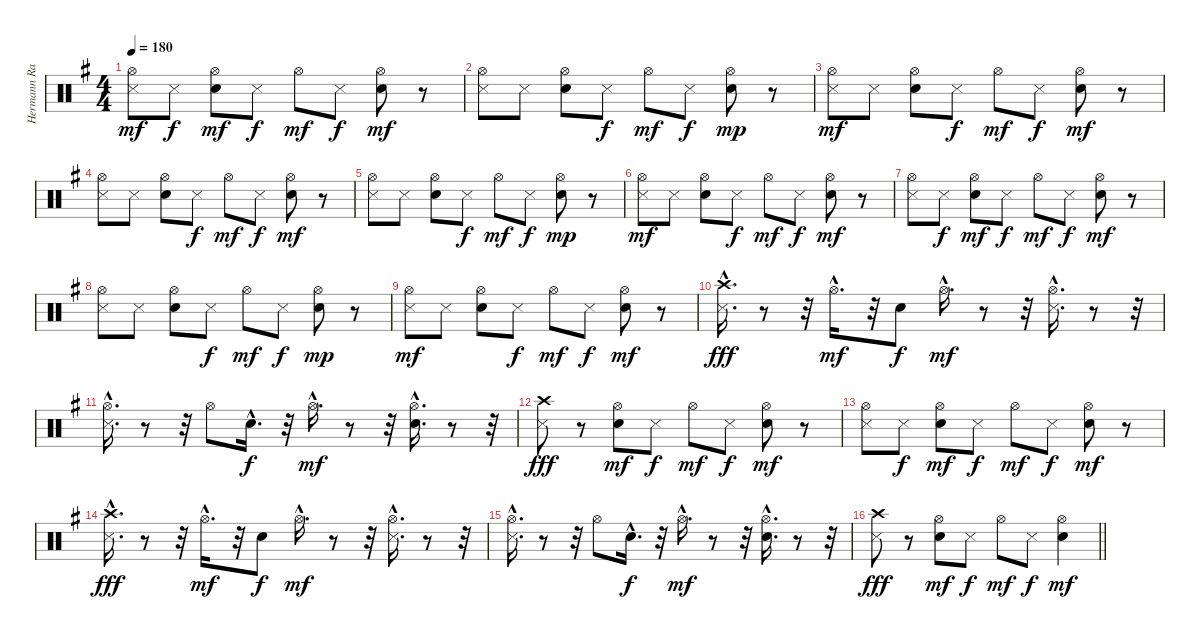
\track ("Hermann Rarebel" "Hermann Ra") {instrument percussion}
\staff {score}
\articulation defaults
\ts (4 4)
\tempo 180
\clef neutral
\ks eminor
("Hi-Hat (open)" "Metronome (hit)").8{dy mf} "Metronome (hit)".8{dy f} ("Hi-Hat (open)" "Snare (hit) 2").8{dy mf} "Metronome (hit)".8{dy f} "Hi-Hat (open)".8{dy mf} "Metronome (hit)".8{dy f} ("Hi-Hat (open)" "Snare (hit) 2").8{dy mf} r.8 |
("Hi-Hat (open)" "Metronome (hit)").8 "Metronome (hit)".8 ("Hi-Hat (open)" "Snare (hit) 2").8 "Metronome (hit)".8{dy f} "Hi-Hat (open)".8{dy mf} "Metronome (hit)".8{dy f} ("Hi-Hat (open)" "Snare (hit) 2").8{dy mp} r.8 |
("Hi-Hat (open)" "Metronome (hit)").8{dy mf} "Metronome (hit)".8 ("Hi-Hat (open)" "Snare (hit) 2").8 "Metronome (hit)".8{dy f} "Hi-Hat (open)".8{dy mf} "Metronome (hit)".8{dy f} ("Hi-Hat (open)" "Snare (hit) 2").8{dy mf} r.8 |
("Hi-Hat (open)" "Metronome (hit)").8 "Metronome (hit)".8 ("Hi-Hat (open)" "Snare (hit) 2").8 "Metronome (hit)".8{dy f} "Hi-Hat (open)".8{dy mf} "Metronome (hit)".8{dy f} ("Hi-Hat (open)" "Snare (hit) 2").8{dy mf} r.8 |
("Hi-Hat (open)" "Metronome (hit)").8 "Metronome (hit)".8 ("Hi-Hat (open)" "Snare (hit) 2").8 "Metronome (hit)".8{dy f} "Hi-Hat (open)".8{dy mf} "Metronome (hit)".8{dy f} ("Hi-Hat (open)" "Snare (hit) 2").8{dy mp} r.8 |
("Hi-Hat (open)" "Metronome (hit)").8{dy mf} "Metronome (hit)".8 ("Hi-Hat (open)" "Snare (hit) 2").8 "Metronome (hit)".8{dy f} "Hi-Hat (open)".8{dy mf} "Metronome (hit)".8{dy f} ("Hi-Hat (open)" "Snare (hit) 2").8{dy mf} r.8 |
("Hi-Hat (open)" "Metronome (hit)").8 "Metronome (hit)".8{dy f} ("Hi-Hat (open)" "Snare (hit) 2").8{dy mf} "Metronome (hit)".8{dy f} "Hi-Hat (open)".8{dy mf} "Metronome (hit)".8{dy f} ("Hi-Hat (open)" "Snare (hit) 2").8{dy mf} r.8 |
("Hi-Hat (open)" "Metronome (hit)").8 "Metronome (hit)".8 ("Hi-Hat (open)" "Snare (hit) 2").8 "Metronome (hit)".8{dy f} "Hi-Hat (open)".8{dy mf} "Metronome (hit)".8{dy f} ("Hi-Hat (open)" "Snare (hit) 2").8{dy mp} r.8 |
("Hi-Hat (open)" "Metronome (hit)").8{dy mf} "Metronome (hit)".8 ("Hi-Hat (open)" "Snare (hit) 2").8 "Metronome (hit)".8{dy f} "Hi-Hat (open)".8{dy mf} "Metronome (hit)".8{dy f} ("Hi-Hat (open)" "Snare (hit) 2").8{dy mf} r.8 |
("Metronome (hit)"{hac} "Crash high (hit)"{hac}).16{d dy fff} r.8 r.32 "Hi-Hat (open)"{hac}.16{d dy mf} r.32 "Snare (hit) 2".8{dy f} "Hi-Hat (open)"{hac}.16{d dy mf} r.8 r.32 ("Hi-Hat (open)"{hac} "Metronome (hit)"{hac}).16{d} r.8 r.32 |
("Hi-Hat (open)"{hac} "Metronome (hit)"{hac}).16{d} r.8 r.32 "Hi-Hat (open)".8 "Snare (hit) 2"{hac}.16{d dy f} r.32 "Hi-Hat (open)"{hac}.16{d dy mf} r.8 r.32 ("Snare (hit) 2"{hac} "Hi-Hat (open)"{hac}).16{d} r.8 r.32 |
("Crash high (hit)" "Metronome (hit)").8{dy fff} r.8 ("Hi-Hat (open)" "Snare (hit) 2").8{dy mf} "Metronome (hit)".8{dy f} "Hi-Hat (open)".8{dy mf} "Metronome (hit)".8{dy f} ("Hi-Hat (open)" "Snare (hit) 2").8{dy mf} r.8 |
("Hi-Hat (open)" "Metronome (hit)").8 "Metronome (hit)".8{dy f} ("Hi-Hat (open)" "Snare (hit) 2").8{dy mf} "Metronome (hit)".8{dy f} "Hi-Hat (open)".8{dy mf} "Metronome (hit)".8{dy f} ("Hi-Hat (open)" "Snare (hit) 2").8{dy mf} r.8 |
("Metronome (hit)"{hac} "Crash high (hit)"{hac}).16{d dy fff} r.8 r.32 "Hi-Hat (open)"{hac}.16{d dy mf} r.32 "Snare (hit) 2".8{dy f} "Hi-Hat (open)"{hac}.16{d dy mf} r.8 r.32 ("Hi-Hat (open)"{hac} "Metronome (hit)"{hac}).16{d} r.8 r.32 |
("Hi-Hat (open)"{hac} "Metronome (hit)"{hac}).16{d} r.8 r.32 "Hi-Hat (open)".8 "Snare (hit) 2"{hac}.16{d dy f} r.32 "Hi-Hat (open)"{hac}.16{d dy mf} r.8 r.32 ("Snare (hit) 2"{hac} "Hi-Hat (open)"{hac}).16{d} r.8 r.32 |
\barLineRight lightlight
("Crash high (hit)" "Metronome (hit)").8{dy fff} r.8 ("Hi-Hat (open)" "Snare (hit) 2").8{dy mf} "Metronome (hit)".8{dy f} "Hi-Hat (open)".8{dy mf} "Metronome (hit)".8{dy f} ("Hi-Hat (open)" "Snare (hit) 2").4{dy mf}
